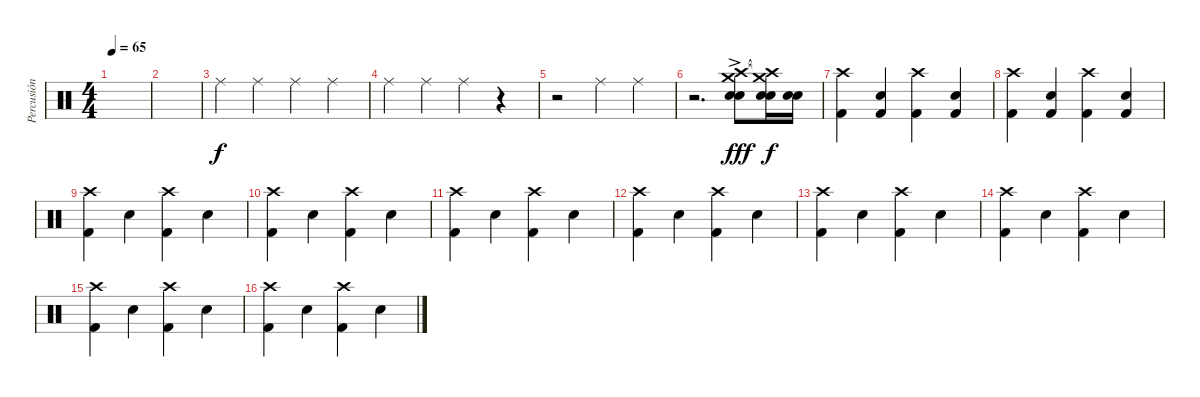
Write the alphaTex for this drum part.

\track ("Percusión" "Percusión") {instrument percussion}
\staff {score}
\articulation defaults
\ts (4 4)
\tempo 65
\clef neutral
\ks c
|
|
"Ride (middle)".4{volume 12} "Ride (middle)".4 "Ride (middle)".4 "Ride (middle)".4 |
"Ride (middle)".4 "Ride (middle)".4 "Ride (middle)".4 r.4 |
r.2 "Ride (middle)".4 "Ride (middle)".4 |
r.2{d} ("Crash medium (hit)"{ac} "Crash high (hit)" "Electric Snare (hit)" "Snare (hit) 2").8{dy fff volume 16} ("Crash medium (hit)"{t} "Crash high (hit)"{t} "Electric Snare (hit)" "Snare (hit) 2").16{dy f} ("Electric Snare (hit)" "Snare (hit) 2").16 |
("Crash high (hit)" "Kick (hit) 2").4 ("Kick (hit) 2" "Snare (hit) 2").4 ("Crash high (hit)" "Kick (hit) 2").4 ("Kick (hit) 2" "Snare (hit) 2").4 |
("Crash high (hit)" "Kick (hit) 2").4 ("Kick (hit) 2" "Snare (hit) 2").4 ("Crash high (hit)" "Kick (hit) 2").4 ("Kick (hit) 2" "Snare (hit) 2").4 |
("Crash high (hit)" "Kick (hit) 2").4 "Snare (hit) 2".4 ("Crash high (hit)" "Kick (hit) 2").4 "Snare (hit) 2".4 |
("Crash high (hit)" "Kick (hit) 2").4 "Snare (hit) 2".4 ("Crash high (hit)" "Kick (hit) 2").4 "Snare (hit) 2".4 |
("Crash high (hit)" "Kick (hit) 2").4 "Snare (hit) 2".4 ("Crash high (hit)" "Kick (hit) 2").4 "Snare (hit) 2".4 |
("Crash high (hit)" "Kick (hit) 2").4 "Snare (hit) 2".4 ("Crash high (hit)" "Kick (hit) 2").4 "Snare (hit) 2".4 |
("Crash high (hit)" "Kick (hit) 2").4 "Snare (hit) 2".4 ("Crash high (hit)" "Kick (hit) 2").4 "Snare (hit) 2".4 |
("Crash high (hit)" "Kick (hit) 2").4 "Snare (hit) 2".4 ("Crash high (hit)" "Kick (hit) 2").4 "Snare (hit) 2".4 |
("Crash high (hit)" "Kick (hit) 2").4 "Snare (hit) 2".4 ("Crash high (hit)" "Kick (hit) 2").4 "Snare (hit) 2".4 |
("Crash high (hit)" "Kick (hit) 2").4 "Snare (hit) 2".4 ("Crash high (hit)" "Kick (hit) 2").4 "Snare (hit) 2".4
